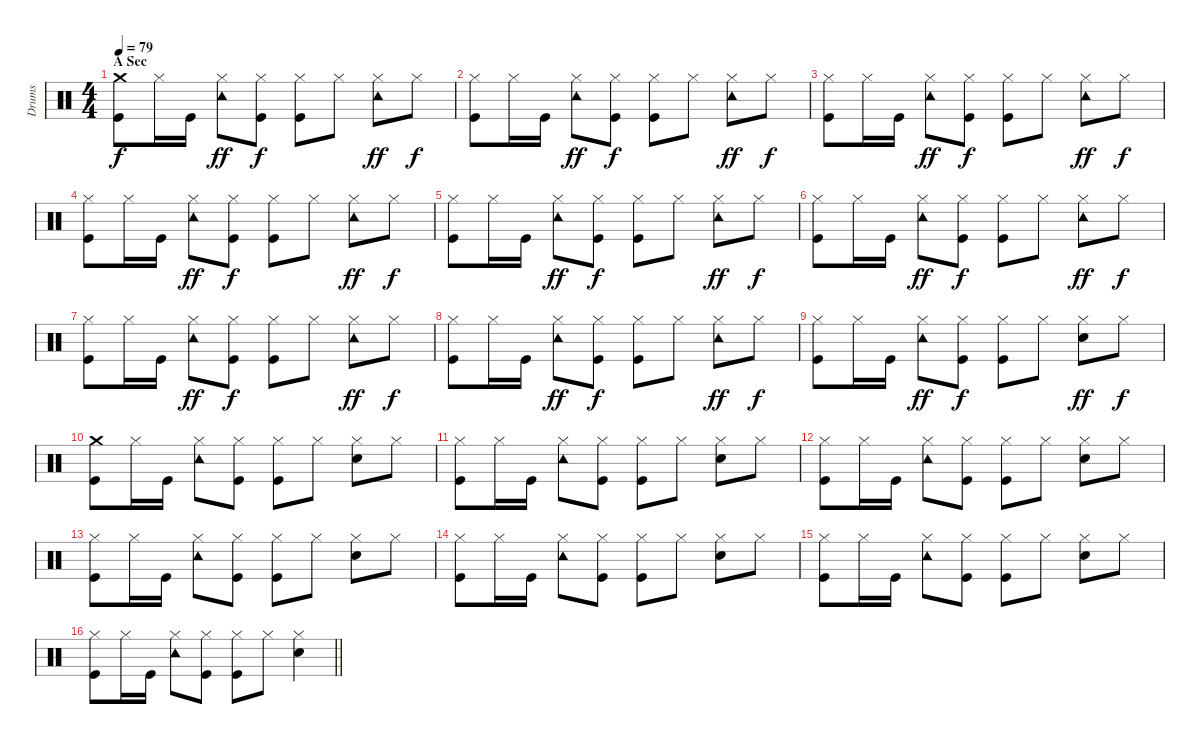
\track ("Drums" "Drums") {instrument percussion}
\staff {score}
\articulation defaults
\ts (4 4)
\section ("" "A Sec")
\tempo 79
\clef neutral
\ks c
("Crash medium (hit)" "Kick (hit)").8{dy f} "Hi-Hat (closed)".16 "Kick (hit)".16 ("Tambourine (hit)" "Hi-Hat (closed)").8{dy ff} ("Hi-Hat (closed)" "Kick (hit)").8{dy f} ("Hi-Hat (closed)" "Kick (hit)").8 "Hi-Hat (closed)".8 ("Tambourine (hit)" "Hi-Hat (closed)").8{dy ff} "Hi-Hat (closed)".8{dy f} |
("Hi-Hat (closed)" "Kick (hit)").8 "Hi-Hat (closed)".16 "Kick (hit)".16 ("Tambourine (hit)" "Hi-Hat (closed)").8{dy ff} ("Hi-Hat (closed)" "Kick (hit)").8{dy f} ("Hi-Hat (closed)" "Kick (hit)").8 "Hi-Hat (closed)".8 ("Tambourine (hit)" "Hi-Hat (closed)").8{dy ff} "Hi-Hat (closed)".8{dy f} |
("Hi-Hat (closed)" "Kick (hit)").8 "Hi-Hat (closed)".16 "Kick (hit)".16 ("Tambourine (hit)" "Hi-Hat (closed)").8{dy ff} ("Hi-Hat (closed)" "Kick (hit)").8{dy f} ("Hi-Hat (closed)" "Kick (hit)").8 "Hi-Hat (closed)".8 ("Tambourine (hit)" "Hi-Hat (closed)").8{dy ff} "Hi-Hat (closed)".8{dy f} |
("Hi-Hat (closed)" "Kick (hit)").8 "Hi-Hat (closed)".16 "Kick (hit)".16 ("Tambourine (hit)" "Hi-Hat (closed)").8{dy ff} ("Hi-Hat (closed)" "Kick (hit)").8{dy f} ("Hi-Hat (closed)" "Kick (hit)").8 "Hi-Hat (closed)".8 ("Tambourine (hit)" "Hi-Hat (closed)").8{dy ff} "Hi-Hat (closed)".8{dy f} |
("Hi-Hat (closed)" "Kick (hit)").8 "Hi-Hat (closed)".16 "Kick (hit)".16 ("Tambourine (hit)" "Hi-Hat (closed)").8{dy ff} ("Hi-Hat (closed)" "Kick (hit)").8{dy f} ("Hi-Hat (closed)" "Kick (hit)").8 "Hi-Hat (closed)".8 ("Tambourine (hit)" "Hi-Hat (closed)").8{dy ff} "Hi-Hat (closed)".8{dy f} |
("Hi-Hat (closed)" "Kick (hit)").8 "Hi-Hat (closed)".16 "Kick (hit)".16 ("Tambourine (hit)" "Hi-Hat (closed)").8{dy ff} ("Hi-Hat (closed)" "Kick (hit)").8{dy f} ("Hi-Hat (closed)" "Kick (hit)").8 "Hi-Hat (closed)".8 ("Tambourine (hit)" "Hi-Hat (closed)").8{dy ff} "Hi-Hat (closed)".8{dy f} |
("Hi-Hat (closed)" "Kick (hit)").8 "Hi-Hat (closed)".16 "Kick (hit)".16 ("Tambourine (hit)" "Hi-Hat (closed)").8{dy ff} ("Hi-Hat (closed)" "Kick (hit)").8{dy f} ("Hi-Hat (closed)" "Kick (hit)").8 "Hi-Hat (closed)".8 ("Tambourine (hit)" "Hi-Hat (closed)").8{dy ff} "Hi-Hat (closed)".8{dy f} |
("Hi-Hat (closed)" "Kick (hit)").8 "Hi-Hat (closed)".16 "Kick (hit)".16 ("Tambourine (hit)" "Hi-Hat (closed)").8{dy ff} ("Hi-Hat (closed)" "Kick (hit)").8{dy f} ("Hi-Hat (closed)" "Kick (hit)").8 "Hi-Hat (closed)".8 ("Tambourine (hit)" "Hi-Hat (closed)").8{dy ff} "Hi-Hat (closed)".8{dy f} |
("Hi-Hat (closed)" "Kick (hit)").8 "Hi-Hat (closed)".16 "Kick (hit)".16 ("Tambourine (hit)" "Hi-Hat (closed)").8{dy ff} ("Hi-Hat (closed)" "Kick (hit)").8{dy f} ("Hi-Hat (closed)" "Kick (hit)").8 "Hi-Hat (closed)".8 ("Electric Snare (hit)" "Hi-Hat (closed)").8{dy ff} "Hi-Hat (closed)".8{dy f} |
("Crash medium (hit)" "Kick (hit)").8 "Hi-Hat (closed)".16 "Kick (hit)".16 ("Tambourine (hit)" "Hi-Hat (closed)").8 ("Hi-Hat (closed)" "Kick (hit)").8 ("Hi-Hat (closed)" "Kick (hit)").8 "Hi-Hat (closed)".8 ("Electric Snare (hit)" "Hi-Hat (closed)").8 "Hi-Hat (closed)".8 |
("Hi-Hat (closed)" "Kick (hit)").8 "Hi-Hat (closed)".16 "Kick (hit)".16 ("Tambourine (hit)" "Hi-Hat (closed)").8 ("Hi-Hat (closed)" "Kick (hit)").8 ("Hi-Hat (closed)" "Kick (hit)").8 "Hi-Hat (closed)".8 ("Electric Snare (hit)" "Hi-Hat (closed)").8 "Hi-Hat (closed)".8 |
("Hi-Hat (closed)" "Kick (hit)").8 "Hi-Hat (closed)".16 "Kick (hit)".16 ("Tambourine (hit)" "Hi-Hat (closed)").8 ("Hi-Hat (closed)" "Kick (hit)").8 ("Hi-Hat (closed)" "Kick (hit)").8 "Hi-Hat (closed)".8 ("Electric Snare (hit)" "Hi-Hat (closed)").8 "Hi-Hat (closed)".8 |
("Hi-Hat (closed)" "Kick (hit)").8 "Hi-Hat (closed)".16 "Kick (hit)".16 ("Tambourine (hit)" "Hi-Hat (closed)").8 ("Hi-Hat (closed)" "Kick (hit)").8 ("Hi-Hat (closed)" "Kick (hit)").8 "Hi-Hat (closed)".8 ("Electric Snare (hit)" "Hi-Hat (closed)").8 "Hi-Hat (closed)".8 |
("Hi-Hat (closed)" "Kick (hit)").8 "Hi-Hat (closed)".16 "Kick (hit)".16 ("Tambourine (hit)" "Hi-Hat (closed)").8 ("Hi-Hat (closed)" "Kick (hit)").8 ("Hi-Hat (closed)" "Kick (hit)").8 "Hi-Hat (closed)".8 ("Electric Snare (hit)" "Hi-Hat (closed)").8 "Hi-Hat (closed)".8 |
("Hi-Hat (closed)" "Kick (hit)").8 "Hi-Hat (closed)".16 "Kick (hit)".16 ("Tambourine (hit)" "Hi-Hat (closed)").8 ("Hi-Hat (closed)" "Kick (hit)").8 ("Hi-Hat (closed)" "Kick (hit)").8 "Hi-Hat (closed)".8 ("Electric Snare (hit)" "Hi-Hat (closed)").8 "Hi-Hat (closed)".8 |
\barLineRight lightlight
("Hi-Hat (closed)" "Kick (hit)").8 "Hi-Hat (closed)".16 "Kick (hit)".16 ("Tambourine (hit)" "Hi-Hat (closed)").8 ("Hi-Hat (closed)" "Kick (hit)").8 ("Hi-Hat (closed)" "Kick (hit)").8 "Hi-Hat (closed)".8 ("Electric Snare (hit)" "Hi-Hat (closed)").4
